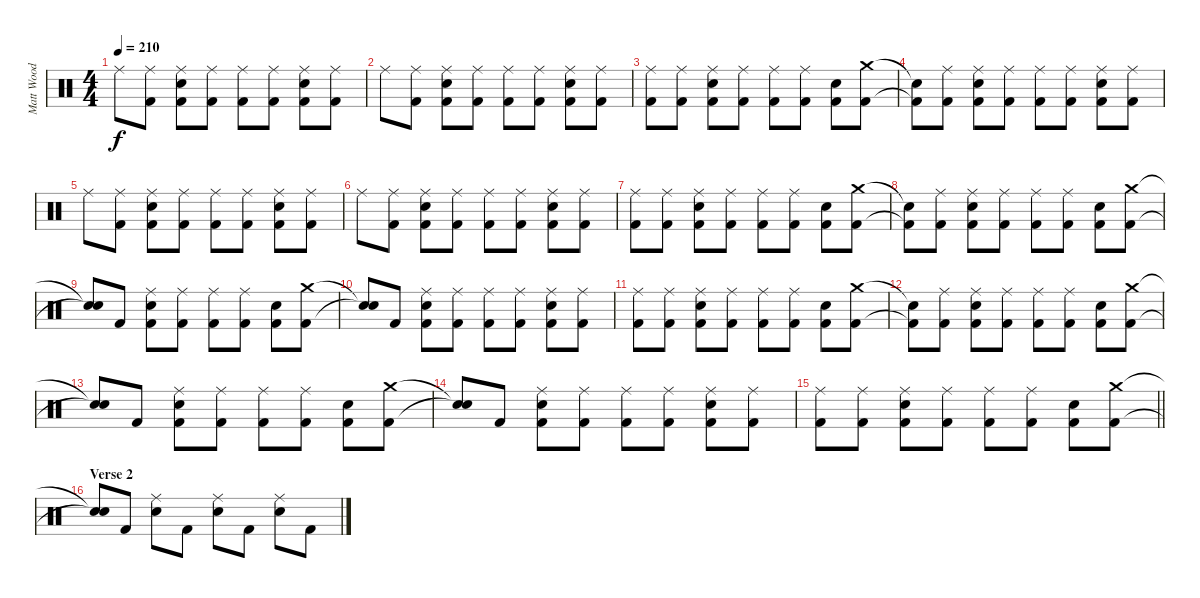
\track ("Matt Wood" "Matt Wood") {instrument percussion}
\staff {score}
\articulation defaults
\ts (4 4)
\tempo 210
\clef neutral
\ks c "Ride (middle)".8{dy f}
("Ride (middle)" "Kick (hit) 2").8 ("Ride (middle)" "Snare (hit) 2" "Kick (hit) 2").8 ("Ride (middle)" "Kick (hit) 2").8 ("Ride (middle)" "Kick (hit) 2").8 ("Ride (middle)" "Kick (hit) 2").8 ("Ride (middle)" "Snare (hit) 2" "Kick (hit) 2").8 ("Ride (middle)" "Kick (hit) 2").8 |
"Ride (middle)".8 ("Ride (middle)" "Kick (hit) 2").8 ("Ride (middle)" "Snare (hit) 2" "Kick (hit) 2").8 ("Ride (middle)" "Kick (hit) 2").8 ("Ride (middle)" "Kick (hit) 2").8 ("Ride (middle)" "Kick (hit) 2").8 ("Ride (middle)" "Snare (hit) 2" "Kick (hit) 2").8 ("Ride (middle)" "Kick (hit) 2").8 |
("Ride (middle)" "Kick (hit) 2").8 ("Ride (middle)" "Kick (hit) 2").8 ("Ride (middle)" "Snare (hit) 2" "Kick (hit) 2").8 ("Ride (middle)" "Kick (hit) 2").8 ("Ride (middle)" "Kick (hit) 2").8 ("Ride (middle)" "Kick (hit) 2").8 ("Snare (hit) 2" "Kick (hit) 2").8 ("Crash medium (hit)" "Kick (hit) 2").8 |
("Snare (hit)"{t} "Kick (hit) 2"{t}).8 ("Ride (middle)" "Kick (hit) 2").8 ("Ride (middle)" "Snare (hit) 2" "Kick (hit) 2").8 ("Ride (middle)" "Kick (hit) 2").8 ("Ride (middle)" "Kick (hit) 2").8 ("Ride (middle)" "Kick (hit) 2").8 ("Ride (middle)" "Snare (hit) 2" "Kick (hit) 2").8 ("Ride (middle)" "Kick (hit) 2").8 |
"Ride (middle)".8 ("Ride (middle)" "Kick (hit) 2").8 ("Ride (middle)" "Snare (hit) 2" "Kick (hit) 2").8 ("Ride (middle)" "Kick (hit) 2").8 ("Ride (middle)" "Kick (hit) 2").8 ("Ride (middle)" "Kick (hit) 2").8 ("Ride (middle)" "Snare (hit) 2" "Kick (hit) 2").8 ("Ride (middle)" "Kick (hit) 2").8 |
"Ride (middle)".8 ("Ride (middle)" "Kick (hit) 2").8 ("Ride (middle)" "Snare (hit) 2" "Kick (hit) 2").8 ("Ride (middle)" "Kick (hit) 2").8 ("Ride (middle)" "Kick (hit) 2").8 ("Ride (middle)" "Kick (hit) 2").8 ("Ride (middle)" "Snare (hit) 2" "Kick (hit) 2").8 ("Ride (middle)" "Kick (hit) 2").8 |
("Ride (middle)" "Kick (hit) 2").8 ("Ride (middle)" "Kick (hit) 2").8 ("Ride (middle)" "Snare (hit) 2" "Kick (hit) 2").8 ("Ride (middle)" "Kick (hit) 2").8 ("Ride (middle)" "Kick (hit) 2").8 ("Ride (middle)" "Kick (hit) 2").8 ("Snare (hit) 2" "Kick (hit) 2").8 ("Crash medium (hit)" "Kick (hit) 2").8 |
("Snare (hit)"{t} "Kick (hit) 2"{t}).8 ("Ride (middle)" "Kick (hit) 2").8 ("Ride (middle)" "Snare (hit) 2" "Kick (hit) 2").8 ("Ride (middle)" "Kick (hit) 2").8 ("Ride (middle)" "Kick (hit) 2").8 ("Ride (middle)" "Kick (hit) 2").8 ("Snare (hit) 2" "Kick (hit) 2").8 ("Crash medium (hit)" "Kick (hit) 2").8 |
("Snare (hit)"{t} "Snare (hit)"{t}).8 "Kick (hit) 2".8 ("Ride (middle)" "Snare (hit) 2" "Kick (hit) 2").8 ("Ride (middle)" "Kick (hit) 2").8 ("Ride (middle)" "Kick (hit) 2").8 ("Ride (middle)" "Kick (hit) 2").8 ("Snare (hit) 2" "Kick (hit) 2").8 ("Crash medium (hit)" "Kick (hit) 2").8 |
("Snare (hit)"{t} "Snare (hit)"{t}).8 "Kick (hit) 2".8 ("Ride (middle)" "Snare (hit) 2" "Kick (hit) 2").8 ("Ride (middle)" "Kick (hit) 2").8 ("Ride (middle)" "Kick (hit) 2").8 ("Ride (middle)" "Kick (hit) 2").8 ("Ride (middle)" "Snare (hit) 2" "Kick (hit) 2").8 ("Ride (middle)" "Kick (hit) 2").8 |
("Ride (middle)" "Kick (hit) 2").8 ("Ride (middle)" "Kick (hit) 2").8 ("Ride (middle)" "Snare (hit) 2" "Kick (hit) 2").8 ("Ride (middle)" "Kick (hit) 2").8 ("Ride (middle)" "Kick (hit) 2").8 ("Ride (middle)" "Kick (hit) 2").8 ("Snare (hit) 2" "Kick (hit) 2").8 ("Crash medium (hit)" "Kick (hit) 2").8 |
("Snare (hit)"{t} "Kick (hit) 2"{t}).8 ("Ride (middle)" "Kick (hit) 2").8 ("Ride (middle)" "Snare (hit) 2" "Kick (hit) 2").8 ("Ride (middle)" "Kick (hit) 2").8 ("Ride (middle)" "Kick (hit) 2").8 ("Ride (middle)" "Kick (hit) 2").8 ("Snare (hit) 2" "Kick (hit) 2").8 ("Crash medium (hit)" "Kick (hit) 2").8 |
("Snare (hit)"{t} "Snare (hit)"{t}).8 "Kick (hit) 2".8 ("Ride (middle)" "Snare (hit) 2" "Kick (hit) 2").8 ("Ride (middle)" "Kick (hit) 2").8 ("Ride (middle)" "Kick (hit) 2").8 ("Ride (middle)" "Kick (hit) 2").8 ("Snare (hit) 2" "Kick (hit) 2").8 ("Crash medium (hit)" "Kick (hit) 2").8 |
("Snare (hit)"{t} "Snare (hit)"{t}).8 "Kick (hit) 2".8 ("Ride (middle)" "Snare (hit) 2" "Kick (hit) 2").8 ("Ride (middle)" "Kick (hit) 2").8 ("Ride (middle)" "Kick (hit) 2").8 ("Ride (middle)" "Kick (hit) 2").8 ("Ride (middle)" "Snare (hit) 2" "Kick (hit) 2").8 ("Ride (middle)" "Kick (hit) 2").8 |
\barLineRight lightlight
("Ride (middle)" "Kick (hit) 2").8 ("Ride (middle)" "Kick (hit) 2").8 ("Ride (middle)" "Snare (hit) 2" "Kick (hit) 2").8 ("Ride (middle)" "Kick (hit) 2").8 ("Ride (middle)" "Kick (hit) 2").8 ("Ride (middle)" "Kick (hit) 2").8 ("Snare (hit) 2" "Kick (hit) 2").8 ("Crash medium (hit)" "Kick (hit) 2").8 |
\section ("" "Verse 2")
("Snare (hit)"{t} "Snare (hit)"{t}).8 "Kick (hit) 2".8 ("Ride (middle)" "Snare (hit) 2").8 "Kick (hit) 2".8 ("Ride (middle)" "Snare (hit) 2").8 "Kick (hit) 2".8 ("Ride (middle)" "Snare (hit) 2").8 "Kick (hit) 2".8
